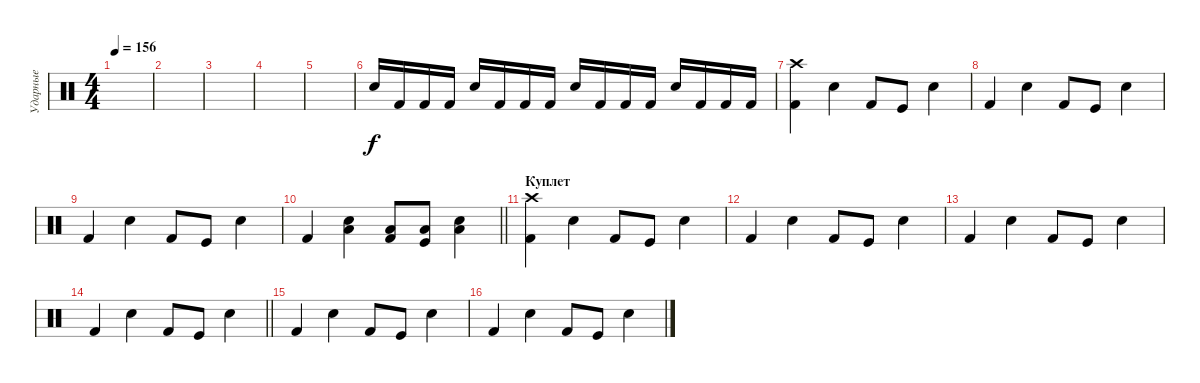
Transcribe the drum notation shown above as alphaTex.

\track ("Ударные" "Ударные") {instrument percussion}
\staff {score}
\articulation defaults
\ts (4 4)
\tempo 156
\clef neutral
\ks c
|
|
|
|
|
"Snare (hit) 2".16 "Kick (hit) 2".16 "Kick (hit) 2".16 "Kick (hit) 2".16 "Snare (hit) 2".16 "Kick (hit) 2".16 "Kick (hit) 2".16 "Kick (hit) 2".16 "Snare (hit) 2".16 "Kick (hit) 2".16 "Kick (hit) 2".16 "Kick (hit) 2".16 "Snare (hit) 2".16 "Kick (hit) 2".16 "Kick (hit) 2".16 "Kick (hit) 2".16 |
("Kick (hit) 2" "Crash high (hit)").4 "Snare (hit) 2".4 "Kick (hit) 2".8 "Kick (hit)".8 "Snare (hit) 2".4 |
"Kick (hit) 2".4 "Snare (hit) 2".4 "Kick (hit) 2".8 "Kick (hit)".8 "Snare (hit) 2".4 |
"Kick (hit) 2".4 "Snare (hit) 2".4 "Kick (hit) 2".8 "Kick (hit)".8 "Snare (hit) 2".4 |
\barLineRight lightlight "Kick (hit) 2".4
("Snare (hit) 2" "Low Tom (hit)").4 ("Kick (hit) 2" "Low Tom (hit)").8 ("Kick (hit)" "Low Tom (hit)").8 ("Snare (hit) 2" "Low Tom (hit)").4 |
\section ("" "Куплет")
("Kick (hit) 2" "Crash high (hit)").4 "Snare (hit) 2".4 "Kick (hit) 2".8 "Kick (hit)".8 "Snare (hit) 2".4 |
"Kick (hit) 2".4 "Snare (hit) 2".4 "Kick (hit) 2".8 "Kick (hit)".8 "Snare (hit) 2".4 |
"Kick (hit) 2".4 "Snare (hit) 2".4 "Kick (hit) 2".8 "Kick (hit)".8 "Snare (hit) 2".4 |
\barLineRight lightlight "Kick (hit) 2".4 "Snare (hit) 2".4 "Kick (hit) 2".8 "Kick (hit)".8 "Snare (hit) 2".4
|
"Kick (hit) 2".4 "Snare (hit) 2".4 "Kick (hit) 2".8 "Kick (hit)".8 "Snare (hit) 2".4 |
"Kick (hit) 2".4 "Snare (hit) 2".4 "Kick (hit) 2".8 "Kick (hit)".8 "Snare (hit) 2".4
